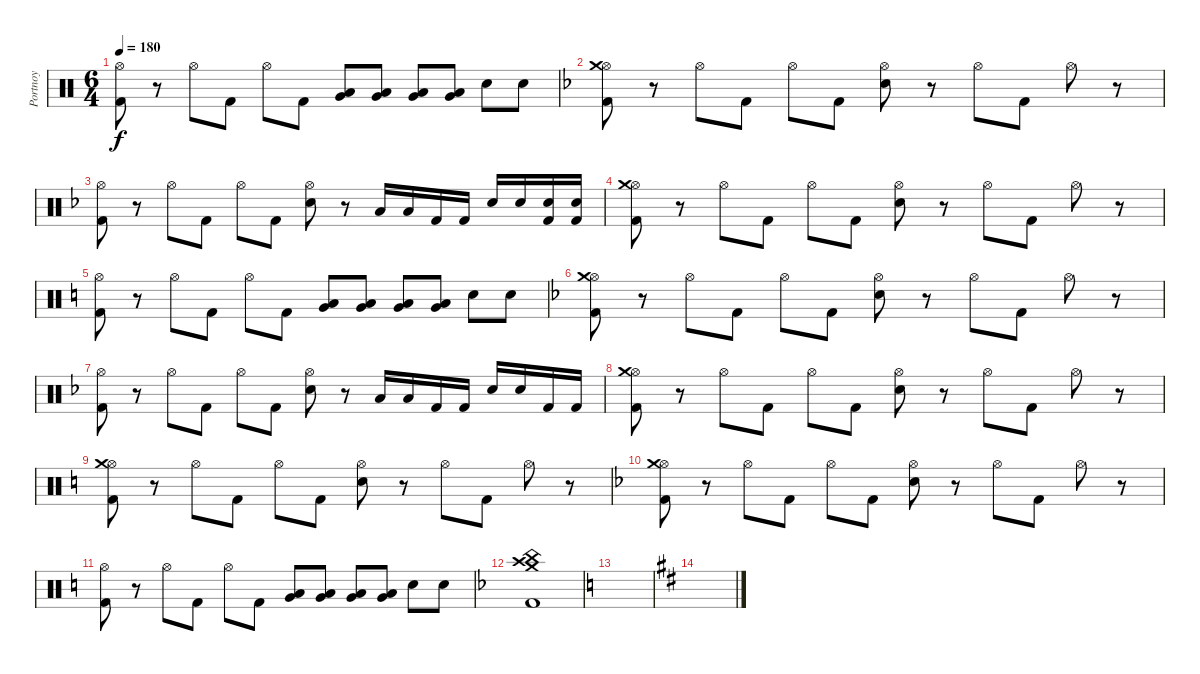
\track ("Portnoy" "Portnoy") {instrument percussion}
\staff {score}
\articulation defaults
\ts (6 4)
\tempo 180
\clef neutral
\ks c
("Hi-Hat (open)" "Kick (hit) 2").8{dy f} r.8 "Hi-Hat (open)".8 "Kick (hit) 2".8 "Hi-Hat (open)".8 "Kick (hit) 2".8 ("Low Tom (hit)" "Very Low Tom (hit)").8 ("Low Tom (hit)" "Very Low Tom (hit)").8 ("Low Tom (hit)" "Very Low Tom (hit)").8 ("Low Tom (hit)" "Very Low Tom (hit)").8 "Electric Snare (hit)".8 "Electric Snare (hit)".8 |
\ks f
("Hi-Hat (open)" "Crash medium (hit)" "Kick (hit) 2").8 r.8 "Hi-Hat (open)".8 "Kick (hit) 2".8 "Hi-Hat (open)".8 "Kick (hit) 2".8 ("Hi-Hat (open)" "Electric Snare (hit)").8 r.8 "Hi-Hat (open)".8 "Kick (hit) 2".8 "Hi-Hat (open)".8 r.8 |
("Hi-Hat (open)" "Kick (hit) 2").8 r.8 "Hi-Hat (open)".8 "Kick (hit) 2".8 "Hi-Hat (open)".8 "Kick (hit) 2".8 ("Hi-Hat (open)" "Electric Snare (hit)").8 r.8 "Low Tom (hit)".16 "Low Tom (hit)".16 "Kick (hit) 2".16 "Kick (hit) 2".16 "Electric Snare (hit)".16 "Electric Snare (hit)".16 ("Electric Snare (hit)" "Kick (hit) 2").16 ("Electric Snare (hit)" "Kick (hit) 2").16 |
("Hi-Hat (open)" "Crash medium (hit)" "Kick (hit) 2").8 r.8 "Hi-Hat (open)".8 "Kick (hit) 2".8 "Hi-Hat (open)".8 "Kick (hit) 2".8 ("Hi-Hat (open)" "Electric Snare (hit)").8 r.8 "Hi-Hat (open)".8 "Kick (hit) 2".8 "Hi-Hat (open)".8 r.8 |
\ks c
("Hi-Hat (open)" "Kick (hit) 2").8 r.8 "Hi-Hat (open)".8 "Kick (hit) 2".8 "Hi-Hat (open)".8 "Kick (hit) 2".8 ("Low Tom (hit)" "Very Low Tom (hit)").8 ("Low Tom (hit)" "Very Low Tom (hit)").8 ("Low Tom (hit)" "Very Low Tom (hit)").8 ("Low Tom (hit)" "Very Low Tom (hit)").8 "Electric Snare (hit)".8 "Electric Snare (hit)".8 |
\ks f
("Hi-Hat (open)" "Crash medium (hit)" "Kick (hit) 2").8 r.8 "Hi-Hat (open)".8 "Kick (hit) 2".8 "Hi-Hat (open)".8 "Kick (hit) 2".8 ("Hi-Hat (open)" "Electric Snare (hit)").8 r.8 "Hi-Hat (open)".8 "Kick (hit) 2".8 "Hi-Hat (open)".8 r.8 |
("Hi-Hat (open)" "Kick (hit) 2").8 r.8 "Hi-Hat (open)".8 "Kick (hit) 2".8 "Hi-Hat (open)".8 "Kick (hit) 2".8 ("Hi-Hat (open)" "Electric Snare (hit)").8 r.8 "Low Tom (hit)".16 "Low Tom (hit)".16 "Kick (hit) 2".16 "Kick (hit) 2".16 "Electric Snare (hit)".16 "Electric Snare (hit)".16 "Kick (hit) 2".16 "Kick (hit) 2".16 |
("Hi-Hat (open)" "Crash medium (hit)" "Kick (hit) 2").8 r.8 "Hi-Hat (open)".8 "Kick (hit) 2".8 "Hi-Hat (open)".8 "Kick (hit) 2".8 ("Hi-Hat (open)" "Electric Snare (hit)").8 r.8 "Hi-Hat (open)".8 "Kick (hit) 2".8 "Hi-Hat (open)".8 r.8 |
\ks c
("Hi-Hat (open)" "Crash medium (hit)" "Kick (hit) 2").8 r.8 "Hi-Hat (open)".8 "Kick (hit) 2".8 "Hi-Hat (open)".8 "Kick (hit) 2".8 ("Hi-Hat (open)" "Electric Snare (hit)").8 r.8 "Hi-Hat (open)".8 "Kick (hit) 2".8 "Hi-Hat (open)".8 r.8 |
\ks f
("Hi-Hat (open)" "Crash medium (hit)" "Kick (hit) 2").8 r.8 "Hi-Hat (open)".8 "Kick (hit) 2".8 "Hi-Hat (open)".8 "Kick (hit) 2".8 ("Hi-Hat (open)" "Electric Snare (hit)").8 r.8 "Hi-Hat (open)".8 "Kick (hit) 2".8 "Hi-Hat (open)".8 r.8 |
\ks c
("Hi-Hat (open)" "Kick (hit) 2").8 r.8 "Hi-Hat (open)".8 "Kick (hit) 2".8 "Hi-Hat (open)".8 "Kick (hit) 2".8 ("Low Tom (hit)" "Very Low Tom (hit)").8 ("Low Tom (hit)" "Very Low Tom (hit)").8 ("Low Tom (hit)" "Very Low Tom (hit)").8 ("Low Tom (hit)" "Very Low Tom (hit)").8 "Electric Snare (hit)".8 "Electric Snare (hit)".8 |
\ks f
("Crash high (hit)" "China (hit)" "Crash medium (hit)" "Kick (hit) 2").1 |
\ks c
|
\ks d
